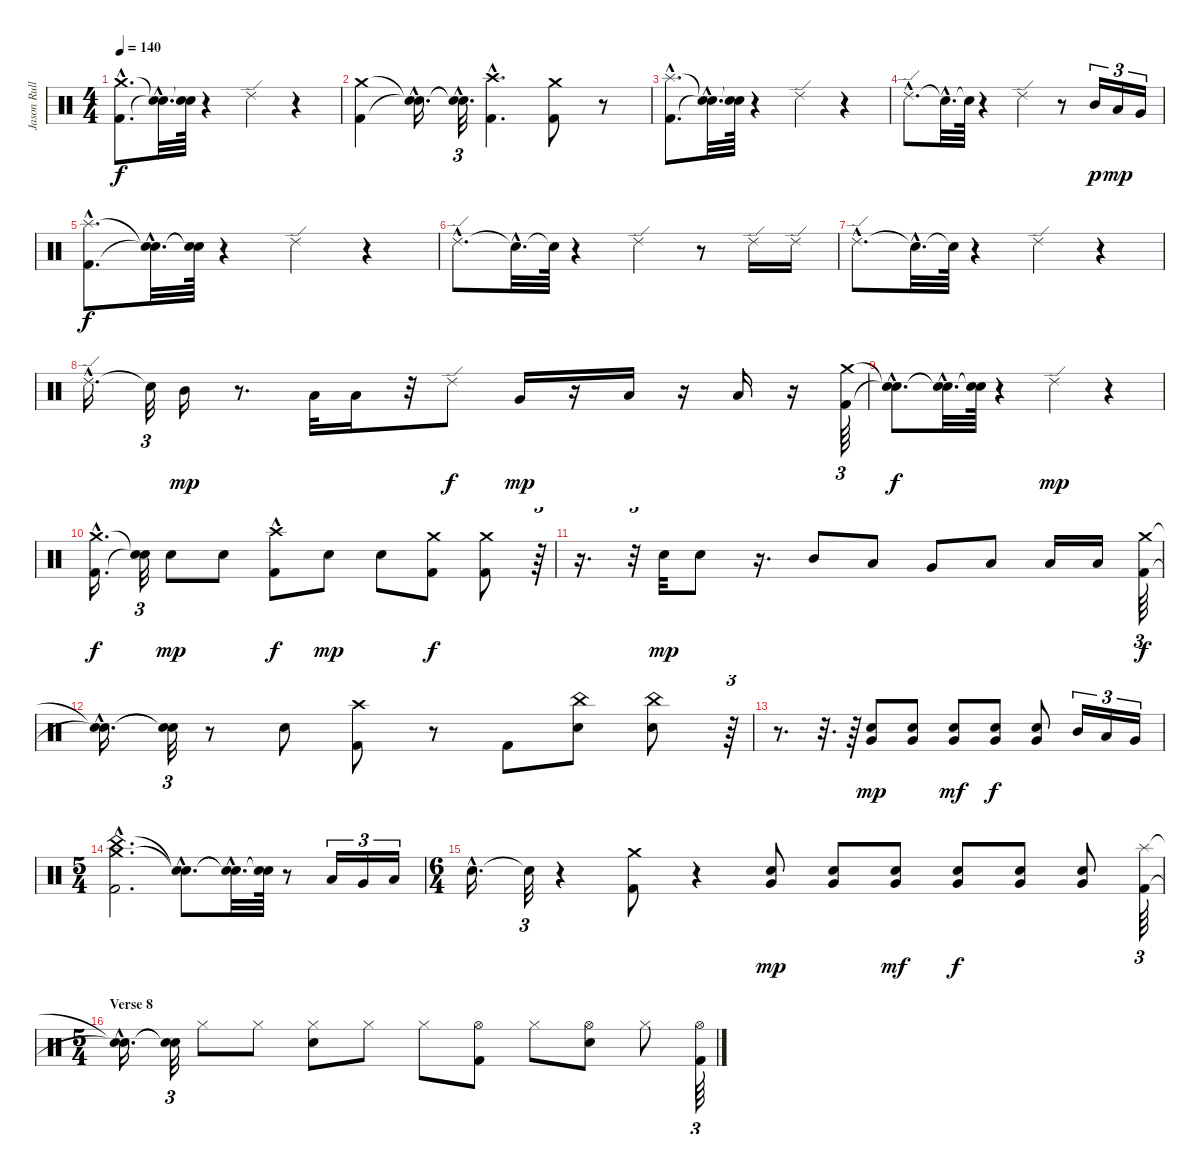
\track ("Jason Rullo" "Jason Rull") {instrument percussion}
\staff {score}
\articulation defaults
\ts (4 4)
\tempo 140
\clef neutral
\ks c
("Crash medium (hit)"{hac} "Kick (hit) 2"{hac}).8{d dy f} ("Snare (hit)"{hac t} "Snare (hit)"{hac t}).32{d} ("Snare (hit)"{t} "Snare (hit)"{t}).64 r.4 "Ride (edge) 2".4 r.4 |
("Crash medium (hit)" "Kick (hit) 2").4 ("Snare (hit)"{hac t} "Snare (hit)"{hac t}).16{d} ("Snare (hit)"{hac t} "Snare (hit)"{hac t}).32{d tu (3 2)} ("Crash high (hit)"{hac} "Kick (hit) 2"{hac}).4{d} ("Crash medium (hit)" "Kick (hit) 2").8 r.8 |
("Splash (hit)"{hac} "Kick (hit) 2"{hac}).8{d} ("Snare (hit)"{hac t} "Snare (hit)"{hac t}).32{d} ("Snare (hit)"{t} "Snare (hit)"{t}).64 r.4 "Ride (edge) 2".4 r.4 |
"Ride (edge) 2"{hac}.8{d} "Snare (hit)"{hac t}.32{d} "Snare (hit)"{t}.64 r.4 "Ride (edge) 2".4 r.8 "Mid Tom (hit)".16{tu (3 2) dy p} "Low Tom (hit)".16{tu (3 2) dy mp} "Very Low Tom (hit)".16{tu (3 2)} |
("Splash (hit)"{hac} "Kick (hit) 2"{hac}).8{d dy f} ("Snare (hit)"{hac t} "Snare (hit)"{hac t}).32{d} ("Snare (hit)"{t} "Snare (hit)"{t}).64 r.4 "Ride (edge) 2".4 r.4 |
"Ride (edge) 2"{hac}.8{d} "Snare (hit)"{hac t}.32{d} "Snare (hit)"{t}.64 r.4 "Ride (edge) 2".4 r.8 "Ride (edge) 2".16 "Ride (edge) 2".16 |
"Ride (edge) 2"{hac}.8{d} "Snare (hit)"{hac t}.32{d} "Snare (hit)"{t}.64 r.4 "Ride (edge) 2".4 r.4 |
"Ride (edge) 2"{hac}.16{d} "Snare (hit)"{t}.32{tu (3 2)} "Mid Tom (hit)".16{dy mp} r.8{d} "Low Tom (hit)".32 "Low Tom (hit)".16 r.32 "Ride (edge) 2".8{dy f} "Very Low Tom (hit)".16{dy mp} r.16 "Low Floor Tom (hit)".16 r.16 "Low Floor Tom (hit)".16 r.16 ("Crash medium (hit)" "Kick (hit) 2").64{tu (3 2)} |
("Snare (hit)"{hac t} "Snare (hit)"{hac t}).8{d dy f} ("Snare (hit)"{hac t} "Snare (hit)"{hac t}).32{d} ("Snare (hit)"{t} "Snare (hit)"{t}).64 r.4 "Ride (edge) 2".4{dy mp} r.4 |
("Crash medium (hit)"{hac} "Kick (hit) 2"{hac}).16{d dy f} ("Snare (hit)"{t} "Snare (hit)"{t}).32{tu (3 2)} "Electric Snare (hit)".8{dy mp} "Electric Snare (hit)".8 ("Crash high (hit)"{hac} "Kick (hit) 2"{hac}).8{dy f} "Electric Snare (hit)".8{dy mp} "Electric Snare (hit)".8 ("Crash medium (hit)" "Kick (hit) 2").8{dy f} ("Crash medium (hit)" "Kick (hit) 2").8 r.64{tu (3 2)} |
r.16{d} r.32{tu (3 2)} "Electric Snare (hit)".32{dy mp} "Electric Snare (hit)".8 r.16{d} "Mid Tom (hit)".8 "Low Tom (hit)".8 "Very Low Tom (hit)".8 "Low Floor Tom (hit)".8 "Low Floor Tom (hit)".16 "Low Floor Tom (hit)".16 ("Crash medium (hit)" "Kick (hit) 2").64{tu (3 2) dy f} |
("Snare (hit)"{hac t} "Snare (hit)"{hac t}).16{d} ("Snare (hit)"{t} "Snare (hit)"{t}).32{tu (3 2)} r.8 "Electric Snare (hit)".8 ("Crash high (hit)" "Kick (hit) 2").8 r.8 "Kick (hit) 2".8 ("China (hit)" "Electric Snare (hit)").8 ("China (hit)" "Electric Snare (hit)").8 r.64{tu (3 2)} |
r.8{d} r.32{d} r.64 ("Very Low Tom (hit)" "Electric Snare (hit)").8{dy mp} ("Very Low Tom (hit)" "Electric Snare (hit)").8 ("Very Low Tom (hit)" "Electric Snare (hit)").8{dy mf} ("Very Low Tom (hit)" "Electric Snare (hit)").8{dy f} ("Very Low Tom (hit)" "Electric Snare (hit)").8 "Mid Tom (hit)".16{tu (3 2)} "Low Tom (hit)".16{tu (3 2)} "Very Low Tom (hit)".16{tu (3 2)} |
\ts (5 4)
("China (hit)"{hac} "Crash medium (hit)"{hac} "Kick (hit) 2"{hac}).2{d} ("Snare (hit)"{hac t} "Snare (hit)"{hac t}).8{d} ("Snare (hit)"{hac t} "Snare (hit)"{hac t}).32{d} ("Snare (hit)"{t} "Snare (hit)"{t}).64 r.8 "Low Tom (hit)".16{tu (3 2)} "Very Low Tom (hit)".16{tu (3 2)} "Low Floor Tom (hit)".16{tu (3 2)} |
\ts (6 4)
"Electric Snare (hit)"{hac}.16{d} "Snare (hit)"{t}.32{tu (3 2)} r.4 ("Crash medium (hit)" "Kick (hit) 2").8 r.4 ("Electric Snare (hit)" "Very Low Tom (hit)").8{dy mp} ("Electric Snare (hit)" "Very Low Tom (hit)").8 ("Electric Snare (hit)" "Very Low Tom (hit)").8{dy mf} ("Electric Snare (hit)" "Very Low Tom (hit)").8{dy f} ("Electric Snare (hit)" "Very Low Tom (hit)").8 ("Very Low Tom (hit)" "Electric Snare (hit)").8 ("Splash (hit)" "Kick (hit) 2").64{tu (3 2)} |
\ts (5 4)
\section ("" "Verse 8")
("Snare (hit)"{hac t} "Snare (hit)"{hac t}).16{d} ("Snare (hit)"{t} "Snare (hit)"{t}).32{tu (3 2)} "Hi-Hat (closed)".8 "Hi-Hat (closed)".8 ("Hi-Hat (closed)" "Electric Snare (hit)").8 "Hi-Hat (closed)".8 "Hi-Hat (closed)".8 ("Hi-Hat (open)" "Kick (hit) 2").8 "Hi-Hat (closed)".8 ("Hi-Hat (open)" "Electric Snare (hit)").8 "Hi-Hat (closed)".8 ("Hi-Hat (open)" "Kick (hit) 2").64{tu (3 2)}
